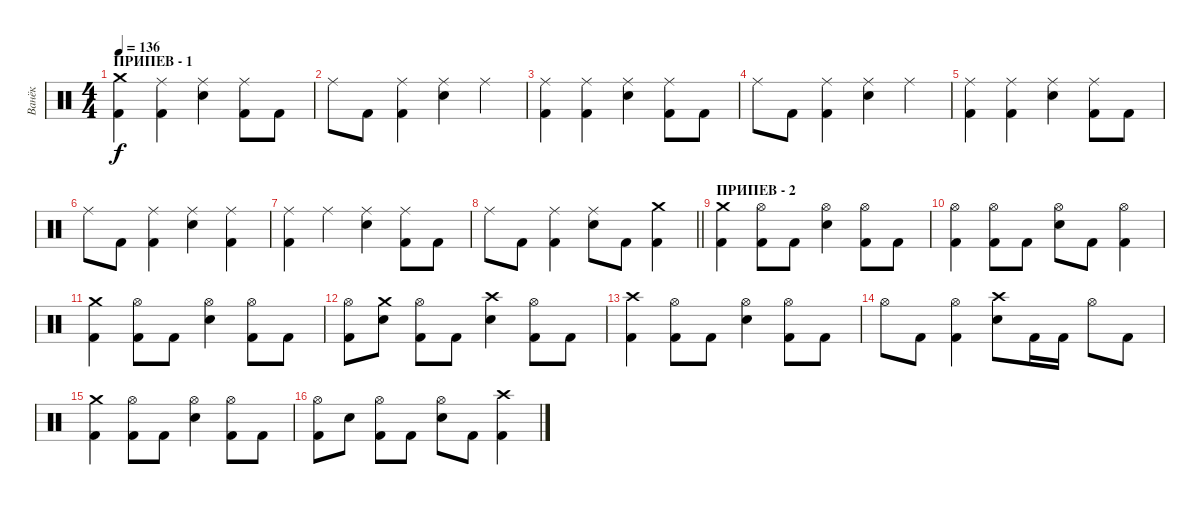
\track ("Ванёк" "Ванёк") {instrument percussion}
\staff {score}
\articulation defaults
\ts (4 4)
\section ("" "ПРИПЕВ - 1")
\tempo 136
\clef neutral
\ks c
("Crash medium (hit)" "Kick (hit) 2").4{dy f} ("Ride (middle)" "Kick (hit) 2").4 ("Ride (middle)" "Snare (hit) 2").4 ("Ride (middle)" "Kick (hit) 2").8 "Kick (hit) 2".8 |
"Ride (middle)".8 "Kick (hit) 2".8 ("Ride (middle)" "Kick (hit) 2").4 ("Ride (middle)" "Snare (hit) 2").4 "Ride (middle)".4 |
("Ride (middle)" "Kick (hit) 2").4 ("Ride (middle)" "Kick (hit) 2").4 ("Ride (middle)" "Snare (hit) 2").4 ("Ride (middle)" "Kick (hit) 2").8 "Kick (hit) 2".8 |
"Ride (middle)".8 "Kick (hit) 2".8 ("Ride (middle)" "Kick (hit) 2").4 ("Ride (middle)" "Snare (hit) 2").4 "Ride (middle)".4 |
("Ride (middle)" "Kick (hit) 2").4 ("Ride (middle)" "Kick (hit) 2").4 ("Ride (middle)" "Snare (hit) 2").4 ("Ride (middle)" "Kick (hit) 2").8 "Kick (hit) 2".8 |
"Ride (middle)".8 "Kick (hit) 2".8 ("Ride (middle)" "Kick (hit) 2").4 ("Ride (middle)" "Snare (hit) 2").4 ("Ride (middle)" "Kick (hit) 2").4 |
("Ride (middle)" "Kick (hit) 2").4 "Ride (middle)".4 ("Ride (middle)" "Snare (hit) 2").4 ("Ride (middle)" "Kick (hit) 2").8 "Kick (hit) 2".8 |
\barLineRight lightlight "Ride (middle)".8 "Kick (hit) 2".8
("Ride (middle)" "Kick (hit) 2").4 ("Ride (middle)" "Snare (hit) 2").8 "Kick (hit) 2".8 ("Crash medium (hit)" "Kick (hit) 2").4 |
\section ("" "ПРИПЕВ - 2")
("Crash medium (hit)" "Kick (hit) 2").4 ("Hi-Hat (open)" "Kick (hit) 2").8 "Kick (hit) 2".8 ("Hi-Hat (open)" "Snare (hit) 2").4 ("Hi-Hat (open)" "Kick (hit) 2").8 "Kick (hit) 2".8 |
("Hi-Hat (open)" "Kick (hit) 2").4 ("Hi-Hat (open)" "Kick (hit) 2").8 "Kick (hit) 2".8 ("Hi-Hat (open)" "Snare (hit) 2").8 "Kick (hit) 2".8 ("Hi-Hat (open)" "Kick (hit) 2").4 |
("Crash medium (hit)" "Kick (hit) 2").4 ("Hi-Hat (open)" "Kick (hit) 2").8 "Kick (hit) 2".8 ("Hi-Hat (open)" "Snare (hit) 2").4 ("Hi-Hat (open)" "Kick (hit) 2").8 "Kick (hit) 2".8 |
("Hi-Hat (open)" "Kick (hit) 2").8 ("Crash medium (hit)" "Snare (hit) 2").8 ("Hi-Hat (open)" "Kick (hit) 2").8 "Kick (hit) 2".8 ("Crash high (hit)" "Snare (hit) 2").4 ("Hi-Hat (open)" "Kick (hit) 2").8 "Kick (hit) 2".8 |
("Crash high (hit)" "Kick (hit) 2").4 ("Hi-Hat (open)" "Kick (hit) 2").8 "Kick (hit) 2".8 ("Hi-Hat (open)" "Snare (hit) 2").4 ("Hi-Hat (open)" "Kick (hit) 2").8 "Kick (hit) 2".8 |
"Hi-Hat (open)".8 "Kick (hit) 2".8 ("Hi-Hat (open)" "Kick (hit) 2").4 ("Crash high (hit)" "Snare (hit) 2").8 "Kick (hit) 2".16 "Kick (hit) 2".16 "Hi-Hat (open)".8 "Kick (hit) 2".8 |
("Crash medium (hit)" "Kick (hit) 2").4 ("Hi-Hat (open)" "Kick (hit) 2").8 "Kick (hit) 2".8 ("Hi-Hat (open)" "Snare (hit) 2").4 ("Hi-Hat (open)" "Kick (hit) 2").8 "Kick (hit) 2".8 |
("Hi-Hat (open)" "Kick (hit) 2").8 "Snare (hit) 2".8 ("Hi-Hat (open)" "Kick (hit) 2").8 "Kick (hit) 2".8 ("Hi-Hat (open)" "Snare (hit) 2").8 "Kick (hit) 2".8 ("Crash high (hit)" "Kick (hit) 2").4
